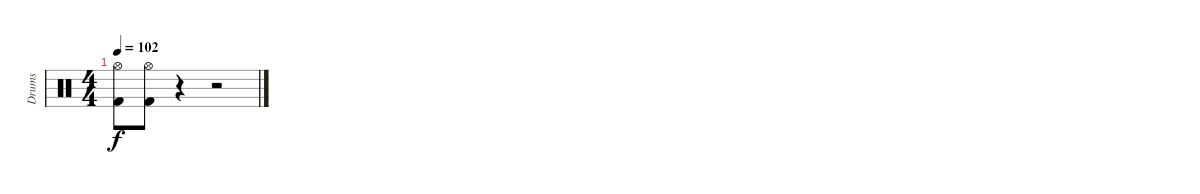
\track ("Drums" "Drums") {instrument percussion}
\staff {score}
\articulation defaults
\ts (4 4)
\tempo 102
\clef neutral
\ks c
("Kick (hit) 2" "Hi-Hat (open)").8{dy f} ("Kick (hit) 2" "Hi-Hat (open)").8 r.4 r.2
